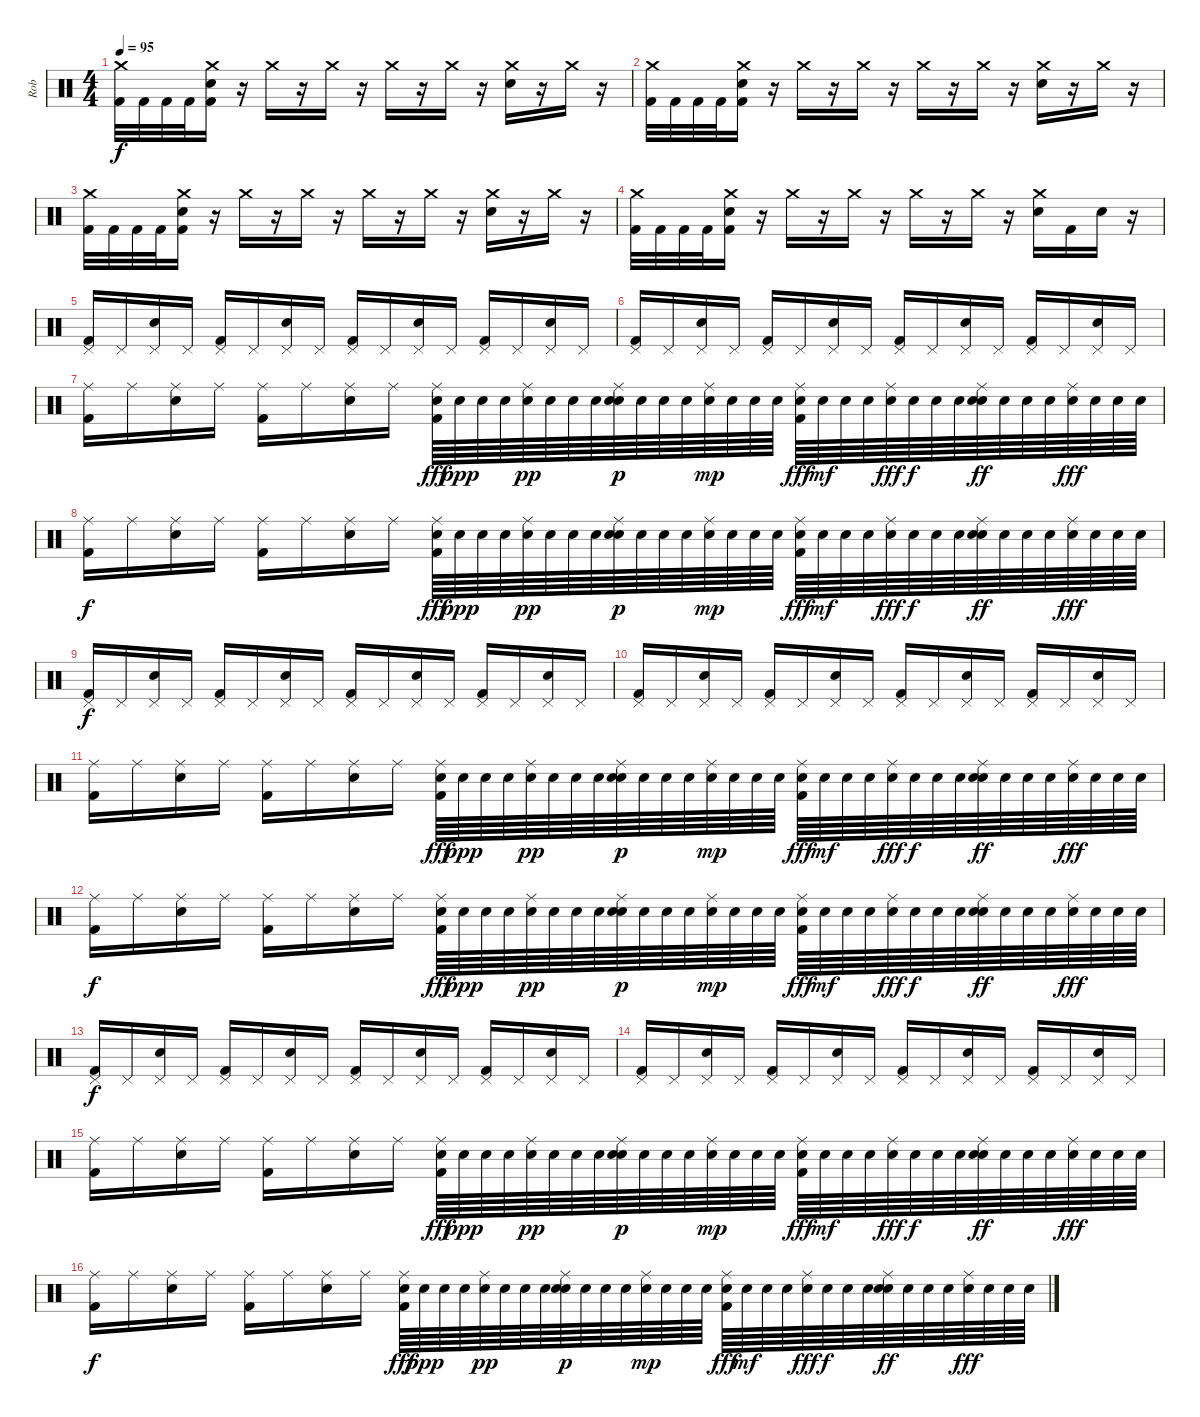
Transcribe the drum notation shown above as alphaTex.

\track ("Rob" "Rob") {instrument percussion}
\staff {score}
\articulation defaults
\ts (4 4)
\tempo 95
\clef neutral
\ks c
("Crash medium (hit)" "Kick (hit) 2").32{dy f} "Kick (hit) 2".32 "Kick (hit) 2".32 "Kick (hit) 2".32 ("Crash medium (hit)" "Electric Snare (hit)" "Kick (hit) 2").16 r.16 "Crash medium (hit)".16 r.16 "Crash medium (hit)".16 r.16 "Crash medium (hit)".16 r.16 "Crash medium (hit)".16 r.16 ("Crash medium (hit)" "Electric Snare (hit)").16 r.16 "Crash medium (hit)".16 r.16 |
("Crash medium (hit)" "Kick (hit) 2").32 "Kick (hit) 2".32 "Kick (hit) 2".32 "Kick (hit) 2".32 ("Crash medium (hit)" "Electric Snare (hit)" "Kick (hit) 2").16 r.16 "Crash medium (hit)".16 r.16 "Crash medium (hit)".16 r.16 "Crash medium (hit)".16 r.16 "Crash medium (hit)".16 r.16 ("Crash medium (hit)" "Electric Snare (hit)").16 r.16 "Crash medium (hit)".16 r.16 |
("Crash medium (hit)" "Kick (hit) 2").32 "Kick (hit) 2".32 "Kick (hit) 2".32 "Kick (hit) 2".32 ("Crash medium (hit)" "Electric Snare (hit)" "Kick (hit) 2").16 r.16 "Crash medium (hit)".16 r.16 "Crash medium (hit)".16 r.16 "Crash medium (hit)".16 r.16 "Crash medium (hit)".16 r.16 ("Crash medium (hit)" "Electric Snare (hit)").16 r.16 "Crash medium (hit)".16 r.16 |
("Crash medium (hit)" "Kick (hit) 2").32 "Kick (hit) 2".32 "Kick (hit) 2".32 "Kick (hit) 2".32 ("Crash medium (hit)" "Electric Snare (hit)" "Kick (hit) 2").16 r.16 "Crash medium (hit)".16 r.16 "Crash medium (hit)".16 r.16 "Crash medium (hit)".16 r.16 "Crash medium (hit)".16 r.16 ("Crash medium (hit)" "Electric Snare (hit)").16 "Kick (hit) 2".16 "Electric Snare (hit)".16 r.16 |
("Pedal Hi-Hat (hit)" "Kick (hit) 2").16 "Pedal Hi-Hat (hit)".16 ("Pedal Hi-Hat (hit)" "Electric Snare (hit)").16 "Pedal Hi-Hat (hit)".16 ("Pedal Hi-Hat (hit)" "Kick (hit) 2").16 "Pedal Hi-Hat (hit)".16 ("Pedal Hi-Hat (hit)" "Electric Snare (hit)").16 "Pedal Hi-Hat (hit)".16 ("Pedal Hi-Hat (hit)" "Kick (hit) 2").16 "Pedal Hi-Hat (hit)".16 ("Pedal Hi-Hat (hit)" "Electric Snare (hit)").16 "Pedal Hi-Hat (hit)".16 ("Pedal Hi-Hat (hit)" "Kick (hit) 2").16 "Pedal Hi-Hat (hit)".16 ("Pedal Hi-Hat (hit)" "Electric Snare (hit)").16 "Pedal Hi-Hat (hit)".16 |
("Pedal Hi-Hat (hit)" "Kick (hit) 2").16 "Pedal Hi-Hat (hit)".16 ("Pedal Hi-Hat (hit)" "Electric Snare (hit)").16 "Pedal Hi-Hat (hit)".16 ("Pedal Hi-Hat (hit)" "Kick (hit) 2").16 "Pedal Hi-Hat (hit)".16 ("Pedal Hi-Hat (hit)" "Electric Snare (hit)").16 "Pedal Hi-Hat (hit)".16 ("Pedal Hi-Hat (hit)" "Kick (hit) 2").16 "Pedal Hi-Hat (hit)".16 ("Pedal Hi-Hat (hit)" "Electric Snare (hit)").16 "Pedal Hi-Hat (hit)".16 ("Pedal Hi-Hat (hit)" "Kick (hit) 2").16 "Pedal Hi-Hat (hit)".16 ("Pedal Hi-Hat (hit)" "Electric Snare (hit)").16 "Pedal Hi-Hat (hit)".16 |
("Ride (middle)" "Kick (hit) 2").16 "Ride (middle)".16 ("Ride (middle)" "Electric Snare (hit)").16 "Ride (middle)".16 ("Ride (middle)" "Kick (hit) 2").16 "Ride (middle)".16 ("Ride (middle)" "Electric Snare (hit)").16 "Ride (middle)".16 ("Ride (middle)" "Electric Snare (hit)" "Kick (hit) 2").64{dy fff} "Electric Snare (hit)".64{dy ppp} "Electric Snare (hit)".64 "Electric Snare (hit)".64 ("Ride (middle)" "Electric Snare (hit)").64{dy pp} "Electric Snare (hit)".64 "Electric Snare (hit)".64 "Electric Snare (hit)".64 ("Ride (middle)" "Electric Snare (hit)" "Electric Snare (hit)").64{dy p} "Electric Snare (hit)".64 "Electric Snare (hit)".64 "Electric Snare (hit)".64 ("Ride (middle)" "Electric Snare (hit)").64{dy mp} "Electric Snare (hit)".64 "Electric Snare (hit)".64 "Electric Snare (hit)".64 ("Ride (middle)" "Electric Snare (hit)" "Kick (hit) 2").64{dy fff} "Electric Snare (hit)".64{dy mf} "Electric Snare (hit)".64 "Electric Snare (hit)".64 ("Ride (middle)" "Electric Snare (hit)").64{dy fff} "Electric Snare (hit)".64{dy f} "Electric Snare (hit)".64 "Electric Snare (hit)".64 ("Ride (middle)" "Electric Snare (hit)" "Electric Snare (hit)").64{dy ff} "Electric Snare (hit)".64 "Electric Snare (hit)".64 "Electric Snare (hit)".64 ("Ride (middle)" "Electric Snare (hit)").64{dy fff} "Electric Snare (hit)".64 "Electric Snare (hit)".64 "Electric Snare (hit)".64 |
("Ride (middle)" "Kick (hit) 2").16{dy f} "Ride (middle)".16 ("Ride (middle)" "Electric Snare (hit)").16 "Ride (middle)".16 ("Ride (middle)" "Kick (hit) 2").16 "Ride (middle)".16 ("Ride (middle)" "Electric Snare (hit)").16 "Ride (middle)".16 ("Ride (middle)" "Electric Snare (hit)" "Kick (hit) 2").64{dy fff} "Electric Snare (hit)".64{dy ppp} "Electric Snare (hit)".64 "Electric Snare (hit)".64 ("Ride (middle)" "Electric Snare (hit)").64{dy pp} "Electric Snare (hit)".64 "Electric Snare (hit)".64 "Electric Snare (hit)".64 ("Ride (middle)" "Electric Snare (hit)" "Electric Snare (hit)").64{dy p} "Electric Snare (hit)".64 "Electric Snare (hit)".64 "Electric Snare (hit)".64 ("Ride (middle)" "Electric Snare (hit)").64{dy mp} "Electric Snare (hit)".64 "Electric Snare (hit)".64 "Electric Snare (hit)".64 ("Ride (middle)" "Electric Snare (hit)" "Kick (hit) 2").64{dy fff} "Electric Snare (hit)".64{dy mf} "Electric Snare (hit)".64 "Electric Snare (hit)".64 ("Ride (middle)" "Electric Snare (hit)").64{dy fff} "Electric Snare (hit)".64{dy f} "Electric Snare (hit)".64 "Electric Snare (hit)".64 ("Ride (middle)" "Electric Snare (hit)" "Electric Snare (hit)").64{dy ff} "Electric Snare (hit)".64 "Electric Snare (hit)".64 "Electric Snare (hit)".64 ("Ride (middle)" "Electric Snare (hit)").64{dy fff} "Electric Snare (hit)".64 "Electric Snare (hit)".64 "Electric Snare (hit)".64 |
("Pedal Hi-Hat (hit)" "Kick (hit) 2").16{dy f} "Pedal Hi-Hat (hit)".16 ("Pedal Hi-Hat (hit)" "Electric Snare (hit)").16 "Pedal Hi-Hat (hit)".16 ("Pedal Hi-Hat (hit)" "Kick (hit) 2").16 "Pedal Hi-Hat (hit)".16 ("Pedal Hi-Hat (hit)" "Electric Snare (hit)").16 "Pedal Hi-Hat (hit)".16 ("Pedal Hi-Hat (hit)" "Kick (hit) 2").16 "Pedal Hi-Hat (hit)".16 ("Pedal Hi-Hat (hit)" "Electric Snare (hit)").16 "Pedal Hi-Hat (hit)".16 ("Pedal Hi-Hat (hit)" "Kick (hit) 2").16 "Pedal Hi-Hat (hit)".16 ("Pedal Hi-Hat (hit)" "Electric Snare (hit)").16 "Pedal Hi-Hat (hit)".16 |
("Pedal Hi-Hat (hit)" "Kick (hit) 2").16 "Pedal Hi-Hat (hit)".16 ("Pedal Hi-Hat (hit)" "Electric Snare (hit)").16 "Pedal Hi-Hat (hit)".16 ("Pedal Hi-Hat (hit)" "Kick (hit) 2").16 "Pedal Hi-Hat (hit)".16 ("Pedal Hi-Hat (hit)" "Electric Snare (hit)").16 "Pedal Hi-Hat (hit)".16 ("Pedal Hi-Hat (hit)" "Kick (hit) 2").16 "Pedal Hi-Hat (hit)".16 ("Pedal Hi-Hat (hit)" "Electric Snare (hit)").16 "Pedal Hi-Hat (hit)".16 ("Pedal Hi-Hat (hit)" "Kick (hit) 2").16 "Pedal Hi-Hat (hit)".16 ("Pedal Hi-Hat (hit)" "Electric Snare (hit)").16 "Pedal Hi-Hat (hit)".16 |
("Ride (middle)" "Kick (hit) 2").16 "Ride (middle)".16 ("Ride (middle)" "Electric Snare (hit)").16 "Ride (middle)".16 ("Ride (middle)" "Kick (hit) 2").16 "Ride (middle)".16 ("Ride (middle)" "Electric Snare (hit)").16 "Ride (middle)".16 ("Ride (middle)" "Electric Snare (hit)" "Kick (hit) 2").64{dy fff} "Electric Snare (hit)".64{dy ppp} "Electric Snare (hit)".64 "Electric Snare (hit)".64 ("Ride (middle)" "Electric Snare (hit)").64{dy pp} "Electric Snare (hit)".64 "Electric Snare (hit)".64 "Electric Snare (hit)".64 ("Ride (middle)" "Electric Snare (hit)" "Electric Snare (hit)").64{dy p} "Electric Snare (hit)".64 "Electric Snare (hit)".64 "Electric Snare (hit)".64 ("Ride (middle)" "Electric Snare (hit)").64{dy mp} "Electric Snare (hit)".64 "Electric Snare (hit)".64 "Electric Snare (hit)".64 ("Ride (middle)" "Electric Snare (hit)" "Kick (hit) 2").64{dy fff} "Electric Snare (hit)".64{dy mf} "Electric Snare (hit)".64 "Electric Snare (hit)".64 ("Ride (middle)" "Electric Snare (hit)").64{dy fff} "Electric Snare (hit)".64{dy f} "Electric Snare (hit)".64 "Electric Snare (hit)".64 ("Ride (middle)" "Electric Snare (hit)" "Electric Snare (hit)").64{dy ff} "Electric Snare (hit)".64 "Electric Snare (hit)".64 "Electric Snare (hit)".64 ("Ride (middle)" "Electric Snare (hit)").64{dy fff} "Electric Snare (hit)".64 "Electric Snare (hit)".64 "Electric Snare (hit)".64 |
("Ride (middle)" "Kick (hit) 2").16{dy f} "Ride (middle)".16 ("Ride (middle)" "Electric Snare (hit)").16 "Ride (middle)".16 ("Ride (middle)" "Kick (hit) 2").16 "Ride (middle)".16 ("Ride (middle)" "Electric Snare (hit)").16 "Ride (middle)".16 ("Ride (middle)" "Electric Snare (hit)" "Kick (hit) 2").64{dy fff} "Electric Snare (hit)".64{dy ppp} "Electric Snare (hit)".64 "Electric Snare (hit)".64 ("Ride (middle)" "Electric Snare (hit)").64{dy pp} "Electric Snare (hit)".64 "Electric Snare (hit)".64 "Electric Snare (hit)".64 ("Ride (middle)" "Electric Snare (hit)" "Electric Snare (hit)").64{dy p} "Electric Snare (hit)".64 "Electric Snare (hit)".64 "Electric Snare (hit)".64 ("Ride (middle)" "Electric Snare (hit)").64{dy mp} "Electric Snare (hit)".64 "Electric Snare (hit)".64 "Electric Snare (hit)".64 ("Ride (middle)" "Electric Snare (hit)" "Kick (hit) 2").64{dy fff} "Electric Snare (hit)".64{dy mf} "Electric Snare (hit)".64 "Electric Snare (hit)".64 ("Ride (middle)" "Electric Snare (hit)").64{dy fff} "Electric Snare (hit)".64{dy f} "Electric Snare (hit)".64 "Electric Snare (hit)".64 ("Ride (middle)" "Electric Snare (hit)" "Electric Snare (hit)").64{dy ff} "Electric Snare (hit)".64 "Electric Snare (hit)".64 "Electric Snare (hit)".64 ("Ride (middle)" "Electric Snare (hit)").64{dy fff} "Electric Snare (hit)".64 "Electric Snare (hit)".64 "Electric Snare (hit)".64 |
("Pedal Hi-Hat (hit)" "Kick (hit) 2").16{dy f} "Pedal Hi-Hat (hit)".16 ("Pedal Hi-Hat (hit)" "Electric Snare (hit)").16 "Pedal Hi-Hat (hit)".16 ("Pedal Hi-Hat (hit)" "Kick (hit) 2").16 "Pedal Hi-Hat (hit)".16 ("Pedal Hi-Hat (hit)" "Electric Snare (hit)").16 "Pedal Hi-Hat (hit)".16 ("Pedal Hi-Hat (hit)" "Kick (hit) 2").16 "Pedal Hi-Hat (hit)".16 ("Pedal Hi-Hat (hit)" "Electric Snare (hit)").16 "Pedal Hi-Hat (hit)".16 ("Pedal Hi-Hat (hit)" "Kick (hit) 2").16 "Pedal Hi-Hat (hit)".16 ("Pedal Hi-Hat (hit)" "Electric Snare (hit)").16 "Pedal Hi-Hat (hit)".16 |
("Pedal Hi-Hat (hit)" "Kick (hit) 2").16 "Pedal Hi-Hat (hit)".16 ("Pedal Hi-Hat (hit)" "Electric Snare (hit)").16 "Pedal Hi-Hat (hit)".16 ("Pedal Hi-Hat (hit)" "Kick (hit) 2").16 "Pedal Hi-Hat (hit)".16 ("Pedal Hi-Hat (hit)" "Electric Snare (hit)").16 "Pedal Hi-Hat (hit)".16 ("Pedal Hi-Hat (hit)" "Kick (hit) 2").16 "Pedal Hi-Hat (hit)".16 ("Pedal Hi-Hat (hit)" "Electric Snare (hit)").16 "Pedal Hi-Hat (hit)".16 ("Pedal Hi-Hat (hit)" "Kick (hit) 2").16 "Pedal Hi-Hat (hit)".16 ("Pedal Hi-Hat (hit)" "Electric Snare (hit)").16 "Pedal Hi-Hat (hit)".16 |
("Ride (middle)" "Kick (hit) 2").16 "Ride (middle)".16 ("Ride (middle)" "Electric Snare (hit)").16 "Ride (middle)".16 ("Ride (middle)" "Kick (hit) 2").16 "Ride (middle)".16 ("Ride (middle)" "Electric Snare (hit)").16 "Ride (middle)".16 ("Ride (middle)" "Electric Snare (hit)" "Kick (hit) 2").64{dy fff} "Electric Snare (hit)".64{dy ppp} "Electric Snare (hit)".64 "Electric Snare (hit)".64 ("Ride (middle)" "Electric Snare (hit)").64{dy pp} "Electric Snare (hit)".64 "Electric Snare (hit)".64 "Electric Snare (hit)".64 ("Ride (middle)" "Electric Snare (hit)" "Electric Snare (hit)").64{dy p} "Electric Snare (hit)".64 "Electric Snare (hit)".64 "Electric Snare (hit)".64 ("Ride (middle)" "Electric Snare (hit)").64{dy mp} "Electric Snare (hit)".64 "Electric Snare (hit)".64 "Electric Snare (hit)".64 ("Ride (middle)" "Electric Snare (hit)" "Kick (hit) 2").64{dy fff} "Electric Snare (hit)".64{dy mf} "Electric Snare (hit)".64 "Electric Snare (hit)".64 ("Ride (middle)" "Electric Snare (hit)").64{dy fff} "Electric Snare (hit)".64{dy f} "Electric Snare (hit)".64 "Electric Snare (hit)".64 ("Ride (middle)" "Electric Snare (hit)" "Electric Snare (hit)").64{dy ff} "Electric Snare (hit)".64 "Electric Snare (hit)".64 "Electric Snare (hit)".64 ("Ride (middle)" "Electric Snare (hit)").64{dy fff} "Electric Snare (hit)".64 "Electric Snare (hit)".64 "Electric Snare (hit)".64 |
("Ride (middle)" "Kick (hit) 2").16{dy f} "Ride (middle)".16 ("Ride (middle)" "Electric Snare (hit)").16 "Ride (middle)".16 ("Ride (middle)" "Kick (hit) 2").16 "Ride (middle)".16 ("Ride (middle)" "Electric Snare (hit)").16 "Ride (middle)".16 ("Ride (middle)" "Electric Snare (hit)" "Kick (hit) 2").64{dy fff} "Electric Snare (hit)".64{dy ppp} "Electric Snare (hit)".64 "Electric Snare (hit)".64 ("Ride (middle)" "Electric Snare (hit)").64{dy pp} "Electric Snare (hit)".64 "Electric Snare (hit)".64 "Electric Snare (hit)".64 ("Ride (middle)" "Electric Snare (hit)" "Electric Snare (hit)").64{dy p} "Electric Snare (hit)".64 "Electric Snare (hit)".64 "Electric Snare (hit)".64 ("Ride (middle)" "Electric Snare (hit)").64{dy mp} "Electric Snare (hit)".64 "Electric Snare (hit)".64 "Electric Snare (hit)".64 ("Ride (middle)" "Electric Snare (hit)" "Kick (hit) 2").64{dy fff} "Electric Snare (hit)".64{dy mf} "Electric Snare (hit)".64 "Electric Snare (hit)".64 ("Ride (middle)" "Electric Snare (hit)").64{dy fff} "Electric Snare (hit)".64{dy f} "Electric Snare (hit)".64 "Electric Snare (hit)".64 ("Ride (middle)" "Electric Snare (hit)" "Electric Snare (hit)").64{dy ff} "Electric Snare (hit)".64 "Electric Snare (hit)".64 "Electric Snare (hit)".64 ("Ride (middle)" "Electric Snare (hit)").64{dy fff} "Electric Snare (hit)".64 "Electric Snare (hit)".64 "Electric Snare (hit)".64
